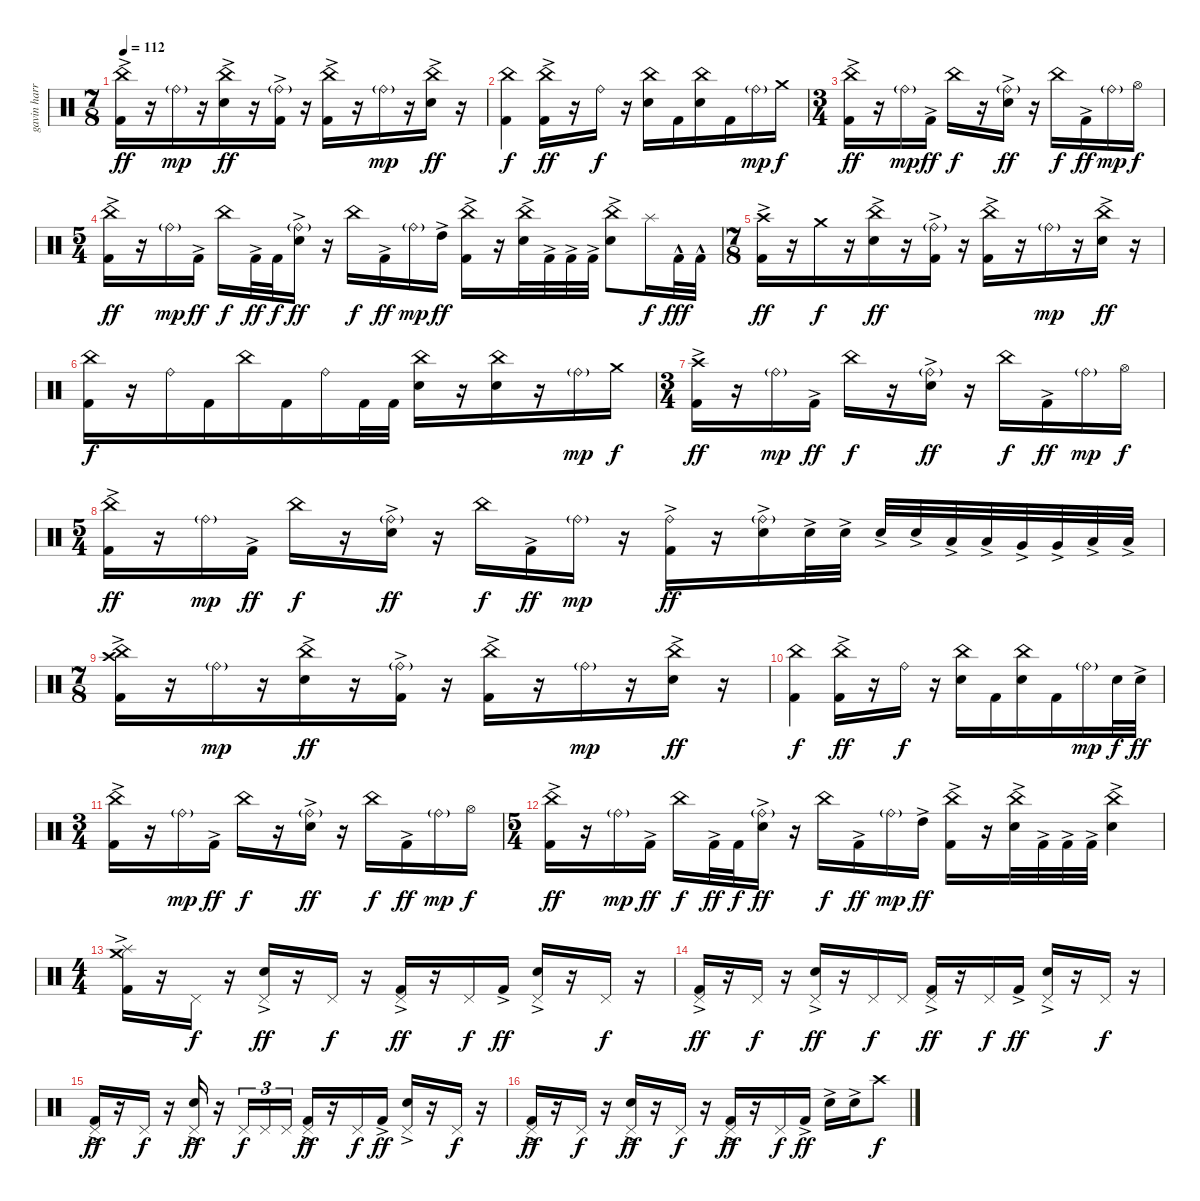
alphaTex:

\track ("gavin harrison" "gavin harr") {instrument percussion}
\staff {score}
\articulation defaults
\ts (7 8)
\tempo 112
\clef neutral
\ks c
("China (hit)" "Kick (hit) 2"{ac}).16{dy ff} r.16 "Ride (bell)"{g}.16{dy mp} r.16 ("China (hit)" "Electric Snare (hit)"{ac}).16{dy ff} r.16 ("Ride (bell)"{g} "Kick (hit) 2"{ac}).16 r.16 ("China (hit)" "Kick (hit) 2"{ac}).16 r.16 "Ride (bell)"{g}.16{dy mp} r.16 ("China (hit)" "Electric Snare (hit)"{ac}).16{dy ff} r.16 |
("China (hit)" "Kick (hit) 2").4{dy f} ("China (hit)" "Kick (hit) 2"{ac}).16{dy ff} r.16 "Ride (bell)".16{dy f} r.16 ("China (hit)" "Electric Snare (hit)").16 "Kick (hit) 2".16 ("China (hit)" "Electric Snare (hit)").16 "Kick (hit) 2".16 "Ride (bell)"{g}.16{dy mp} "Crash medium (hit)".16{dy f} |
\ts (3 4)
("China (hit)" "Kick (hit) 2"{ac}).16{dy ff} r.16 "Ride (bell)"{g}.16{dy mp} "Kick (hit) 2"{ac}.16{dy ff} "China (hit)".16{dy f} r.16 ("Ride (bell)"{g} "Electric Snare (hit)"{ac}).16{dy ff} r.16 "China (hit)".16{dy f} "Kick (hit) 2"{ac}.16{dy ff} "Ride (bell)"{g}.16{dy mp} "Hi-Hat (open)".16{dy f} |
\ts (5 4)
("China (hit)" "Kick (hit) 2"{ac}).16{dy ff} r.16 "Ride (bell)"{g}.16{dy mp} "Kick (hit) 2"{ac}.16{dy ff} "China (hit)".16{dy f} "Kick (hit) 2"{ac}.32{dy ff} "Kick (hit) 2".32{dy f} ("Ride (bell)"{g} "Electric Snare (hit)"{ac}).16{dy ff} r.16 "China (hit)".16{dy f} "Kick (hit) 2"{ac}.16{dy ff} "Ride (bell)"{g}.16{dy mp} "High Tom (hit)"{ac}.16{dy ff} ("China (hit)" "Kick (hit) 2"{ac}).16 r.16 ("China (hit)" "Electric Snare (hit)"{ac}).32 "Kick (hit) 2"{ac}.32 "Kick (hit) 2"{ac}.32 "Kick (hit) 2"{ac}.32 ("China (hit)" "Electric Snare (hit)"{ac}).8 "Splash (hit)".16{dy f} "Kick (hit) 2"{hac}.32{dy fff} "Kick (hit) 2"{hac}.32 |
\ts (7 8)
("Crash high (hit)" "Kick (hit) 2"{ac}).16{dy ff} r.16 "Crash medium (hit)".16{dy f} r.16 ("China (hit)" "Electric Snare (hit)"{ac}).16{dy ff} r.16 ("Ride (bell)"{g} "Kick (hit) 2"{ac}).16 r.16 ("China (hit)" "Kick (hit) 2"{ac}).16 r.16 "Ride (bell)"{g}.16{dy mp} r.16 ("China (hit)" "Electric Snare (hit)"{ac}).16{dy ff} r.16 |
("China (hit)" "Kick (hit) 2").16{dy f} r.16 "Ride (bell)".16 "Kick (hit) 2".16 "China (hit)".16 "Kick (hit) 2".16 "Ride (bell)".16 "Kick (hit) 2".32 "Kick (hit) 2".32 ("China (hit)" "Electric Snare (hit)").16 r.16 ("China (hit)" "Electric Snare (hit)").16 r.16 "Ride (bell)"{g}.16{dy mp} "Crash medium (hit)".16{dy f} |
\ts (3 4)
("Crash high (hit)" "Kick (hit) 2"{ac}).16{dy ff} r.16 "Ride (bell)"{g}.16{dy mp} "Kick (hit) 2"{ac}.16{dy ff} "China (hit)".16{dy f} r.16 ("Ride (bell)"{g} "Electric Snare (hit)"{ac}).16{dy ff} r.16 "China (hit)".16{dy f} "Kick (hit) 2"{ac}.16{dy ff} "Ride (bell)"{g}.16{dy mp} "Hi-Hat (open)".16{dy f} |
\ts (5 4)
("China (hit)" "Kick (hit) 2"{ac}).16{dy ff} r.16 "Ride (bell)"{g}.16{dy mp} "Kick (hit) 2"{ac}.16{dy ff} "China (hit)".16{dy f} r.16 ("Ride (bell)"{g} "Electric Snare (hit)"{ac}).16{dy ff} r.16 "China (hit)".16{dy f} "Kick (hit) 2"{ac}.16{dy ff} "Ride (bell)"{g}.16{dy mp} r.16 ("Ride (bell)" "Kick (hit) 2"{ac}).16{dy ff} r.16 ("Ride (bell)"{g} "Electric Snare (hit)"{ac}).16 "Electric Snare (hit)"{ac}.32 "Electric Snare (hit)"{ac}.32 "Electric Snare (hit)"{ac}.32 "Electric Snare (hit)"{ac}.32 "Low Tom (hit)"{ac}.32 "Low Tom (hit)"{ac}.32 "Very Low Tom (hit)"{ac}.32 "Very Low Tom (hit)"{ac}.32 "Low Floor Tom (hit)"{ac}.32 "Low Floor Tom (hit)"{ac}.32 |
\ts (7 8)
("China (hit)" "Crash high (hit)" "Kick (hit) 2"{ac}).16 r.16 "Ride (bell)"{g}.16{dy mp} r.16 ("China (hit)" "Electric Snare (hit)"{ac}).16{dy ff} r.16 ("Ride (bell)"{g} "Kick (hit) 2"{ac}).16 r.16 ("China (hit)" "Kick (hit) 2"{ac}).16 r.16 "Ride (bell)"{g}.16{dy mp} r.16 ("China (hit)" "Electric Snare (hit)"{ac}).16{dy ff} r.16 |
("China (hit)" "Kick (hit) 2").4{dy f} ("China (hit)" "Kick (hit) 2"{ac}).16{dy ff} r.16 "Ride (bell)".16{dy f} r.16 ("China (hit)" "Electric Snare (hit)").16 "Kick (hit) 2".16 ("China (hit)" "Electric Snare (hit)").16 "Kick (hit) 2".16 "Ride (bell)"{g}.16{dy mp} "Electric Snare (hit)".32{dy f} "Electric Snare (hit)"{ac}.32{dy ff} |
\ts (3 4)
("China (hit)" "Kick (hit) 2"{ac}).16 r.16 "Ride (bell)"{g}.16{dy mp} "Kick (hit) 2"{ac}.16{dy ff} "China (hit)".16{dy f} r.16 ("Ride (bell)"{g} "Electric Snare (hit)"{ac}).16{dy ff} r.16 "China (hit)".16{dy f} "Kick (hit) 2"{ac}.16{dy ff} "Ride (bell)"{g}.16{dy mp} "Hi-Hat (open)".16{dy f} |
\ts (5 4)
("China (hit)" "Kick (hit) 2"{ac}).16{dy ff} r.16 "Ride (bell)"{g}.16{dy mp} "Kick (hit) 2"{ac}.16{dy ff} "China (hit)".16{dy f} "Kick (hit) 2"{ac}.32{dy ff} "Kick (hit) 2".32{dy f} ("Ride (bell)"{g} "Electric Snare (hit)"{ac}).16{dy ff} r.16 "China (hit)".16{dy f} "Kick (hit) 2"{ac}.16{dy ff} "Ride (bell)"{g}.16{dy mp} "High Tom (hit)"{ac}.16{dy ff} ("China (hit)" "Kick (hit) 2"{ac}).16 r.16 ("China (hit)" "Electric Snare (hit)"{ac}).32 "Kick (hit) 2"{ac}.32 "Kick (hit) 2"{ac}.32 "Kick (hit) 2"{ac}.32 ("China (hit)" "Electric Snare (hit)"{ac}).4 |
\ts (4 4)
("Crash medium (hit)" "Splash (hit)" "Kick (hit) 2"{ac}).16 r.16 "Pedal Hi-Hat (hit)".16{dy f} r.16 ("Pedal Hi-Hat (hit)" "Electric Snare (hit)"{ac}).16{dy ff} r.16 "Pedal Hi-Hat (hit)".16{dy f} r.16 ("Pedal Hi-Hat (hit)" "Kick (hit) 2"{ac}).16{dy ff} r.16 "Pedal Hi-Hat (hit)".16{dy f} "Kick (hit) 2"{ac}.16{dy ff} ("Pedal Hi-Hat (hit)" "Electric Snare (hit)"{ac}).16 r.16 "Pedal Hi-Hat (hit)".16{dy f} r.16 |
("Pedal Hi-Hat (hit)" "Kick (hit) 2"{ac}).16{dy ff} r.16 "Pedal Hi-Hat (hit)".16{dy f} r.16 ("Pedal Hi-Hat (hit)" "Electric Snare (hit)"{ac}).16{dy ff} r.16 "Pedal Hi-Hat (hit)".16{dy f} "Pedal Hi-Hat (hit)".16 ("Pedal Hi-Hat (hit)" "Kick (hit) 2"{ac}).16{dy ff} r.16 "Pedal Hi-Hat (hit)".16{dy f} "Kick (hit) 2"{ac}.16{dy ff} ("Pedal Hi-Hat (hit)" "Electric Snare (hit)"{ac}).16 r.16 "Pedal Hi-Hat (hit)".16{dy f} r.16 |
("Pedal Hi-Hat (hit)" "Kick (hit) 2"{ac}).16{dy ff} r.16 "Pedal Hi-Hat (hit)".16{dy f} r.16 ("Pedal Hi-Hat (hit)" "Electric Snare (hit)"{ac}).16{dy ff} r.16 "Pedal Hi-Hat (hit)".16{tu (3 2) dy f} "Pedal Hi-Hat (hit)".16{tu (3 2)} "Pedal Hi-Hat (hit)".16{tu (3 2)} ("Pedal Hi-Hat (hit)" "Kick (hit) 2"{ac}).16{dy ff} r.16 "Pedal Hi-Hat (hit)".16{dy f} "Kick (hit) 2"{ac}.16{dy ff} ("Pedal Hi-Hat (hit)" "Electric Snare (hit)"{ac}).16 r.16 "Pedal Hi-Hat (hit)".16{dy f} r.16 |
("Pedal Hi-Hat (hit)" "Kick (hit) 2"{ac}).16{dy ff} r.16 "Pedal Hi-Hat (hit)".16{dy f} r.16 ("Pedal Hi-Hat (hit)" "Electric Snare (hit)"{ac}).16{dy ff} r.16 "Pedal Hi-Hat (hit)".16{dy f} r.16 ("Pedal Hi-Hat (hit)" "Kick (hit) 2"{ac}).16{dy ff} r.16 "Pedal Hi-Hat (hit)".16{dy f} "Kick (hit) 2"{ac}.16{dy ff} "Electric Snare (hit)"{ac}.16 "Electric Snare (hit)"{ac}.16 "Crash high (hit)".8{dy f}
